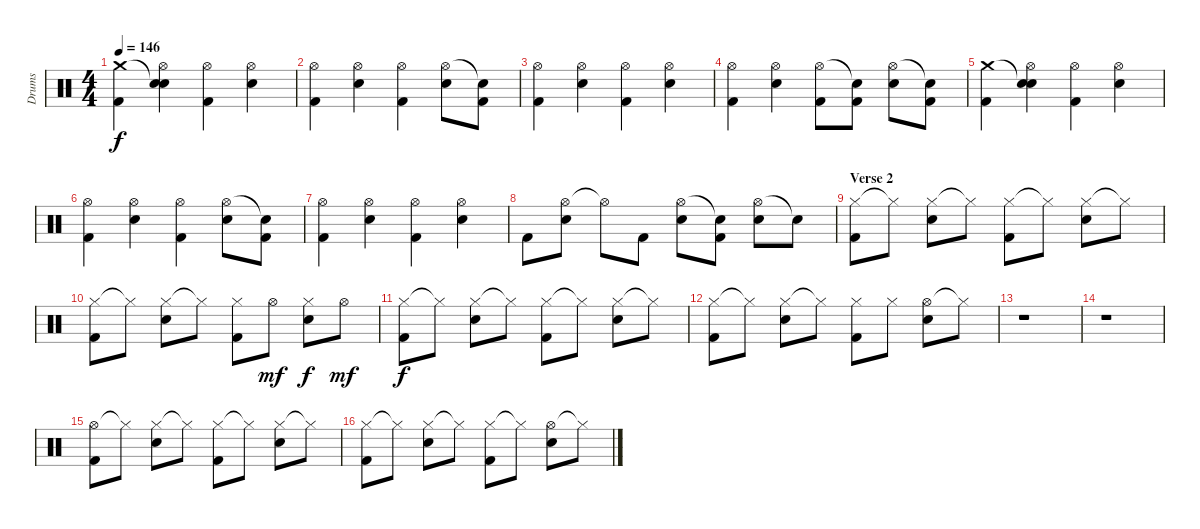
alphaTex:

\track ("Drums" "Drums") {instrument percussion}
\staff {score}
\articulation defaults
\ts (4 4)
\tempo 146
\clef neutral
\ks c
("Crash medium (hit)" "Kick (hit) 2").4{dy f} ("Snare (hit)"{t} "Hi-Hat (open)" "Electric Snare (hit)").4 ("Hi-Hat (open)" "Kick (hit) 2").4 ("Hi-Hat (open)" "Electric Snare (hit)").4 |
("Hi-Hat (open)" "Kick (hit) 2").4 ("Hi-Hat (open)" "Electric Snare (hit)").4 ("Hi-Hat (open)" "Kick (hit) 2").4 ("Hi-Hat (open)" "Electric Snare (hit)").8 ("Snare (hit)"{t} "Kick (hit) 2").8 |
("Hi-Hat (open)" "Kick (hit) 2").4 ("Hi-Hat (open)" "Electric Snare (hit)").4 ("Hi-Hat (open)" "Kick (hit) 2").4 ("Hi-Hat (open)" "Electric Snare (hit)").4 |
("Hi-Hat (open)" "Kick (hit) 2").4 ("Hi-Hat (open)" "Electric Snare (hit)").4 ("Hi-Hat (open)" "Kick (hit) 2").8 ("Snare (hit)"{t} "Kick (hit) 2").8 ("Hi-Hat (open)" "Electric Snare (hit)").8 ("Snare (hit)"{t} "Kick (hit) 2").8 |
("Crash medium (hit)" "Kick (hit) 2").4 ("Snare (hit)"{t} "Hi-Hat (open)" "Electric Snare (hit)").4 ("Hi-Hat (open)" "Kick (hit) 2").4 ("Hi-Hat (open)" "Electric Snare (hit)").4 |
("Hi-Hat (open)" "Kick (hit) 2").4 ("Hi-Hat (open)" "Electric Snare (hit)").4 ("Hi-Hat (open)" "Kick (hit) 2").4 ("Hi-Hat (open)" "Electric Snare (hit)").8 ("Snare (hit)"{t} "Kick (hit) 2").8 |
("Hi-Hat (open)" "Kick (hit) 2").4 ("Hi-Hat (open)" "Electric Snare (hit)").4 ("Hi-Hat (open)" "Kick (hit) 2").4 ("Hi-Hat (open)" "Electric Snare (hit)").4 |
"Kick (hit) 2".8 ("Hi-Hat (open)" "Electric Snare (hit)").8 "Hi-Hat (open)"{t}.8 "Kick (hit) 2".8 ("Hi-Hat (open)" "Electric Snare (hit)").8 ("Snare (hit)"{t} "Kick (hit) 2").8 ("Hi-Hat (open)" "Electric Snare (hit)").8 "Snare (hit)"{t}.8 |
\section ("" "Verse 2")
("Hi-Hat (closed)" "Kick (hit) 2").8 "Hi-Hat (closed)"{t}.8 ("Hi-Hat (closed)" "Electric Snare (hit)").8 "Hi-Hat (closed)"{t}.8 ("Hi-Hat (closed)" "Kick (hit) 2").8 "Hi-Hat (closed)"{t}.8 ("Hi-Hat (closed)" "Electric Snare (hit)").8 "Hi-Hat (closed)"{t}.8 |
("Hi-Hat (closed)" "Kick (hit) 2").8 "Hi-Hat (closed)"{t}.8 ("Hi-Hat (closed)" "Electric Snare (hit)").8 "Hi-Hat (closed)"{t}.8 ("Hi-Hat (closed)" "Kick (hit) 2").8 "Hi-Hat (open)".8{dy mf} ("Hi-Hat (closed)" "Electric Snare (hit)").8{dy f} "Hi-Hat (open)".8{dy mf} |
("Hi-Hat (closed)" "Kick (hit) 2").8{dy f} "Hi-Hat (closed)"{t}.8 ("Hi-Hat (closed)" "Electric Snare (hit)").8 "Hi-Hat (closed)"{t}.8 ("Hi-Hat (closed)" "Kick (hit) 2").8 "Hi-Hat (closed)"{t}.8 ("Hi-Hat (closed)" "Electric Snare (hit)").8 "Hi-Hat (closed)"{t}.8 |
("Hi-Hat (closed)" "Kick (hit) 2").8 "Hi-Hat (closed)"{t}.8 ("Hi-Hat (closed)" "Electric Snare (hit)").8 "Hi-Hat (closed)"{t}.8 ("Hi-Hat (closed)" "Kick (hit) 2").8 "Hi-Hat (closed)".8 ("Hi-Hat (open)" "Electric Snare (hit)").8 "Hi-Hat (closed)"{t}.8 |
r.1 |
r.1 |
("Hi-Hat (open)" "Kick (hit) 2").8 "Hi-Hat (closed)"{t}.8 ("Hi-Hat (closed)" "Electric Snare (hit)").8 "Hi-Hat (closed)"{t}.8 ("Hi-Hat (closed)" "Kick (hit) 2").8 "Hi-Hat (closed)"{t}.8 ("Hi-Hat (closed)" "Electric Snare (hit)").8 "Hi-Hat (closed)"{t}.8 |
("Hi-Hat (closed)" "Kick (hit) 2").8 "Hi-Hat (closed)"{t}.8 ("Hi-Hat (closed)" "Electric Snare (hit)").8 "Hi-Hat (closed)"{t}.8 ("Hi-Hat (closed)" "Kick (hit) 2").8 "Hi-Hat (closed)"{t}.8 ("Hi-Hat (open)" "Electric Snare (hit)").8 "Hi-Hat (closed)"{t}.8
